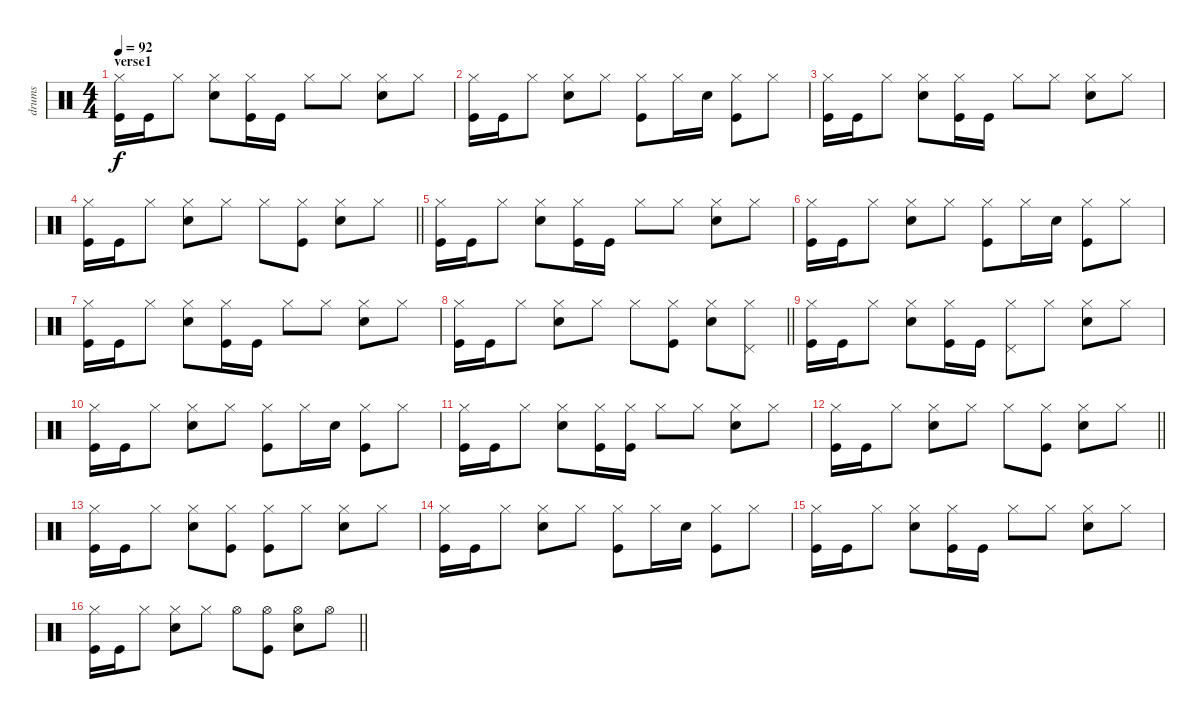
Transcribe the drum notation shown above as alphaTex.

\track ("drums" "drums") {instrument percussion}
\staff {score}
\articulation defaults
\ts (4 4)
\section ("" "verse1")
\tempo 92
\clef neutral
\ks c
("Hi-Hat (closed)" "Kick (hit)").16{dy f} "Kick (hit)".16 "Hi-Hat (closed)".8 ("Hi-Hat (closed)" "Snare (hit) 2").8 ("Hi-Hat (closed)" "Kick (hit)").16 "Kick (hit)".16 "Hi-Hat (closed)".8 "Hi-Hat (closed)".8 ("Hi-Hat (closed)" "Snare (hit) 2").8 "Hi-Hat (closed)".8 |
("Hi-Hat (closed)" "Kick (hit)").16 "Kick (hit)".16 "Hi-Hat (closed)".8 ("Hi-Hat (closed)" "Snare (hit) 2").8 "Hi-Hat (closed)".8 ("Hi-Hat (closed)" "Kick (hit)").8 "Hi-Hat (closed)".16 "Snare (hit) 2".16 ("Hi-Hat (closed)" "Kick (hit)").8 "Hi-Hat (closed)".8 |
("Hi-Hat (closed)" "Kick (hit)").16 "Kick (hit)".16 "Hi-Hat (closed)".8 ("Hi-Hat (closed)" "Snare (hit) 2").8 ("Hi-Hat (closed)" "Kick (hit)").16 "Kick (hit)".16 "Hi-Hat (closed)".8 "Hi-Hat (closed)".8 ("Hi-Hat (closed)" "Snare (hit) 2").8 "Hi-Hat (closed)".8 |
\barLineRight lightlight
("Hi-Hat (closed)" "Kick (hit)").16 "Kick (hit)".16 "Hi-Hat (closed)".8 ("Hi-Hat (closed)" "Snare (hit) 2").8 "Hi-Hat (closed)".8 "Hi-Hat (closed)".8 ("Hi-Hat (closed)" "Kick (hit)").8 ("Hi-Hat (closed)" "Snare (hit) 2").8 "Hi-Hat (closed)".8 |
("Hi-Hat (closed)" "Kick (hit)").16 "Kick (hit)".16 "Hi-Hat (closed)".8 ("Hi-Hat (closed)" "Snare (hit) 2").8 ("Hi-Hat (closed)" "Kick (hit)").16 "Kick (hit)".16 "Hi-Hat (closed)".8 "Hi-Hat (closed)".8 ("Hi-Hat (closed)" "Snare (hit) 2").8 "Hi-Hat (closed)".8 |
("Hi-Hat (closed)" "Kick (hit)").16 "Kick (hit)".16 "Hi-Hat (closed)".8 ("Hi-Hat (closed)" "Snare (hit) 2").8 "Hi-Hat (closed)".8 ("Hi-Hat (closed)" "Kick (hit)").8 "Hi-Hat (closed)".16 "Snare (hit) 2".16 ("Hi-Hat (closed)" "Kick (hit)").8 "Hi-Hat (closed)".8 |
("Hi-Hat (closed)" "Kick (hit)").16 "Kick (hit)".16 "Hi-Hat (closed)".8 ("Hi-Hat (closed)" "Snare (hit) 2").8 ("Hi-Hat (closed)" "Kick (hit)").16 "Kick (hit)".16 "Hi-Hat (closed)".8 "Hi-Hat (closed)".8 ("Hi-Hat (closed)" "Snare (hit) 2").8 "Hi-Hat (closed)".8 |
\barLineRight lightlight
("Hi-Hat (closed)" "Kick (hit)").16 "Kick (hit)".16 "Hi-Hat (closed)".8 ("Hi-Hat (closed)" "Snare (hit) 2").8 "Hi-Hat (closed)".8 "Hi-Hat (closed)".8 ("Hi-Hat (closed)" "Kick (hit)").8 ("Hi-Hat (closed)" "Snare (hit) 2").8 ("Hi-Hat (closed)" "Pedal Hi-Hat (hit)").8 |
("Hi-Hat (closed)" "Kick (hit)").16 "Kick (hit)".16 "Hi-Hat (closed)".8 ("Hi-Hat (closed)" "Snare (hit) 2").8 ("Hi-Hat (closed)" "Kick (hit)").16 "Kick (hit)".16 ("Hi-Hat (closed)" "Pedal Hi-Hat (hit)").8 "Hi-Hat (closed)".8 ("Hi-Hat (closed)" "Snare (hit) 2").8 "Hi-Hat (closed)".8 |
("Hi-Hat (closed)" "Kick (hit)").16 "Kick (hit)".16 "Hi-Hat (closed)".8 ("Hi-Hat (closed)" "Snare (hit) 2").8 "Hi-Hat (closed)".8 ("Hi-Hat (closed)" "Kick (hit)").8 "Hi-Hat (closed)".16 "Snare (hit) 2".16 ("Hi-Hat (closed)" "Kick (hit)").8 "Hi-Hat (closed)".8 |
("Hi-Hat (closed)" "Kick (hit)").16 "Kick (hit)".16 "Hi-Hat (closed)".8 ("Hi-Hat (closed)" "Snare (hit) 2").8 ("Hi-Hat (closed)" "Kick (hit)").16 ("Hi-Hat (closed)" "Kick (hit)").16 "Hi-Hat (closed)".8 "Hi-Hat (closed)".8 ("Hi-Hat (closed)" "Snare (hit) 2").8 "Hi-Hat (closed)".8 |
\barLineRight lightlight
("Hi-Hat (closed)" "Kick (hit)").16 "Kick (hit)".16 "Hi-Hat (closed)".8 ("Hi-Hat (closed)" "Snare (hit) 2").8 "Hi-Hat (closed)".8 "Hi-Hat (closed)".8 ("Hi-Hat (closed)" "Kick (hit)").8 ("Hi-Hat (closed)" "Snare (hit) 2").8 "Hi-Hat (closed)".8 |
("Hi-Hat (closed)" "Kick (hit)").16 "Kick (hit)".16 "Hi-Hat (closed)".8 ("Hi-Hat (closed)" "Snare (hit) 2").8 ("Hi-Hat (closed)" "Kick (hit)").8 ("Hi-Hat (closed)" "Kick (hit)").8 "Hi-Hat (closed)".8 ("Hi-Hat (closed)" "Snare (hit) 2").8 "Hi-Hat (closed)".8 |
("Hi-Hat (closed)" "Kick (hit)").16 "Kick (hit)".16 "Hi-Hat (closed)".8 ("Hi-Hat (closed)" "Snare (hit) 2").8 "Hi-Hat (closed)".8 ("Hi-Hat (closed)" "Kick (hit)").8 "Hi-Hat (closed)".16 "Snare (hit) 2".16 ("Hi-Hat (closed)" "Kick (hit)").8 "Hi-Hat (closed)".8 |
("Hi-Hat (closed)" "Kick (hit)").16 "Kick (hit)".16 "Hi-Hat (closed)".8 ("Hi-Hat (closed)" "Snare (hit) 2").8 ("Hi-Hat (closed)" "Kick (hit)").16 "Kick (hit)".16 "Hi-Hat (closed)".8 "Hi-Hat (closed)".8 ("Hi-Hat (closed)" "Snare (hit) 2").8 "Hi-Hat (closed)".8 |
\barLineRight lightlight
("Hi-Hat (closed)" "Kick (hit)").16 "Kick (hit)".16 "Hi-Hat (closed)".8 ("Hi-Hat (closed)" "Snare (hit) 2").8 "Hi-Hat (closed)".8 "Hi-Hat (open)".8 ("Hi-Hat (open)" "Kick (hit)").8 ("Hi-Hat (open)" "Snare (hit) 2").8 "Hi-Hat (open)".8
